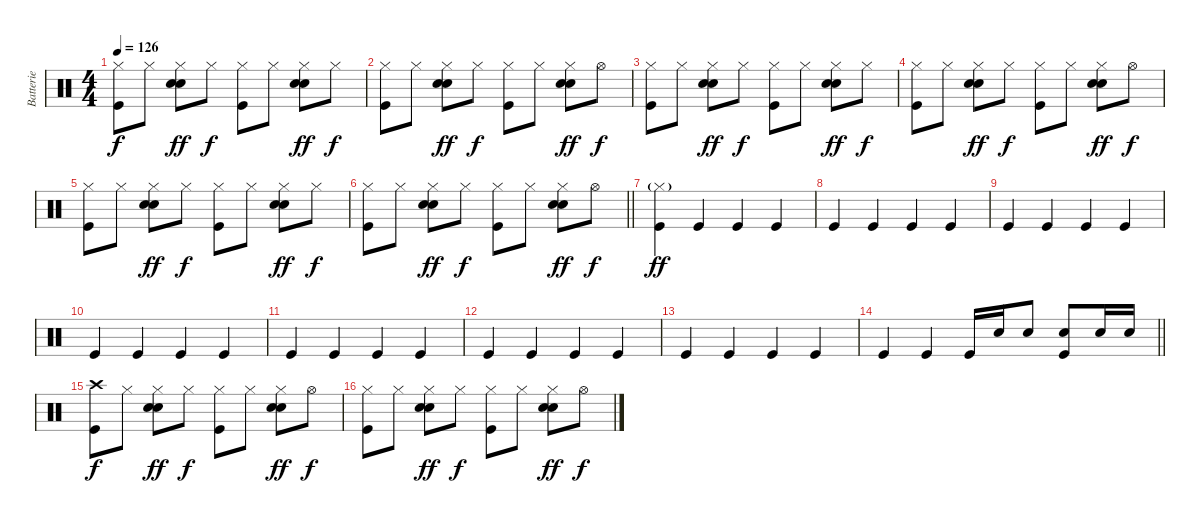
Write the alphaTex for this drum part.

\track ("Batterie" "Batterie") {instrument percussion}
\staff {score}
\articulation defaults
\ts (4 4)
\tempo 126
\clef neutral
\ks c
("Hi-Hat (closed)" "Kick (hit)").8{dy f} "Hi-Hat (closed)".8 ("Hi-Hat (closed)" "Hand Clap (hit)" "Snare (hit) 2").8{dy ff} "Hi-Hat (closed)".8{dy f} ("Hi-Hat (closed)" "Kick (hit)").8 "Hi-Hat (closed)".8 ("Hi-Hat (closed)" "Hand Clap (hit)" "Snare (hit) 2").8{dy ff} "Hi-Hat (closed)".8{dy f} |
("Hi-Hat (closed)" "Kick (hit)").8 "Hi-Hat (closed)".8 ("Hi-Hat (closed)" "Hand Clap (hit)" "Snare (hit) 2").8{dy ff} "Hi-Hat (closed)".8{dy f} ("Hi-Hat (closed)" "Kick (hit)").8 "Hi-Hat (closed)".8 ("Hi-Hat (closed)" "Hand Clap (hit)" "Snare (hit) 2").8{dy ff} "Hi-Hat (open)".8{dy f} |
("Hi-Hat (closed)" "Kick (hit)").8 "Hi-Hat (closed)".8 ("Hi-Hat (closed)" "Hand Clap (hit)" "Snare (hit) 2").8{dy ff} "Hi-Hat (closed)".8{dy f} ("Hi-Hat (closed)" "Kick (hit)").8 "Hi-Hat (closed)".8 ("Hi-Hat (closed)" "Hand Clap (hit)" "Snare (hit) 2").8{dy ff} "Hi-Hat (closed)".8{dy f} |
("Hi-Hat (closed)" "Kick (hit)").8 "Hi-Hat (closed)".8 ("Hi-Hat (closed)" "Hand Clap (hit)" "Snare (hit) 2").8{dy ff} "Hi-Hat (closed)".8{dy f} ("Hi-Hat (closed)" "Kick (hit)").8 "Hi-Hat (closed)".8 ("Hi-Hat (closed)" "Hand Clap (hit)" "Snare (hit) 2").8{dy ff} "Hi-Hat (open)".8{dy f} |
("Hi-Hat (closed)" "Kick (hit)").8 "Hi-Hat (closed)".8 ("Hi-Hat (closed)" "Hand Clap (hit)" "Snare (hit) 2").8{dy ff} "Hi-Hat (closed)".8{dy f} ("Hi-Hat (closed)" "Kick (hit)").8 "Hi-Hat (closed)".8 ("Hi-Hat (closed)" "Hand Clap (hit)" "Snare (hit) 2").8{dy ff} "Hi-Hat (closed)".8{dy f} |
\barLineRight lightlight
("Hi-Hat (closed)" "Kick (hit)").8 "Hi-Hat (closed)".8 ("Hi-Hat (closed)" "Hand Clap (hit)" "Snare (hit) 2").8{dy ff} "Hi-Hat (closed)".8{dy f} ("Hi-Hat (closed)" "Kick (hit)").8 "Hi-Hat (closed)".8 ("Hi-Hat (closed)" "Hand Clap (hit)" "Snare (hit) 2").8{dy ff} "Hi-Hat (open)".8{dy f} |
("Hi-Hat (closed)"{g} "Kick (hit)").4{dy ff} "Kick (hit)".4 "Kick (hit)".4 "Kick (hit)".4 |
"Kick (hit)".4 "Kick (hit)".4 "Kick (hit)".4 "Kick (hit)".4 |
"Kick (hit)".4 "Kick (hit)".4 "Kick (hit)".4 "Kick (hit)".4 |
"Kick (hit)".4 "Kick (hit)".4 "Kick (hit)".4 "Kick (hit)".4 |
"Kick (hit)".4 "Kick (hit)".4 "Kick (hit)".4 "Kick (hit)".4 |
"Kick (hit)".4 "Kick (hit)".4 "Kick (hit)".4 "Kick (hit)".4 |
"Kick (hit)".4 "Kick (hit)".4 "Kick (hit)".4 "Kick (hit)".4 |
\barLineRight lightlight "Kick (hit)".4 "Kick (hit)".4 "Kick (hit)".16 "Snare (hit) 2".16 "Snare (hit) 2".8
("Snare (hit) 2" "Kick (hit)").8 "Snare (hit) 2".16 "Snare (hit) 2".16 |
("Crash high (hit)" "Kick (hit)").8{dy f} "Hi-Hat (closed)".8 ("Hi-Hat (closed)" "Hand Clap (hit)" "Snare (hit) 2").8{dy ff} "Hi-Hat (closed)".8{dy f} ("Hi-Hat (closed)" "Kick (hit)").8 "Hi-Hat (closed)".8 ("Hi-Hat (closed)" "Hand Clap (hit)" "Snare (hit) 2").8{dy ff} "Hi-Hat (open)".8{dy f} |
("Hi-Hat (closed)" "Kick (hit)").8 "Hi-Hat (closed)".8 ("Hi-Hat (closed)" "Hand Clap (hit)" "Snare (hit) 2").8{dy ff} "Hi-Hat (closed)".8{dy f} ("Hi-Hat (closed)" "Kick (hit)").8 "Hi-Hat (closed)".8 ("Hi-Hat (closed)" "Hand Clap (hit)" "Snare (hit) 2").8{dy ff} "Hi-Hat (open)".8{dy f}
